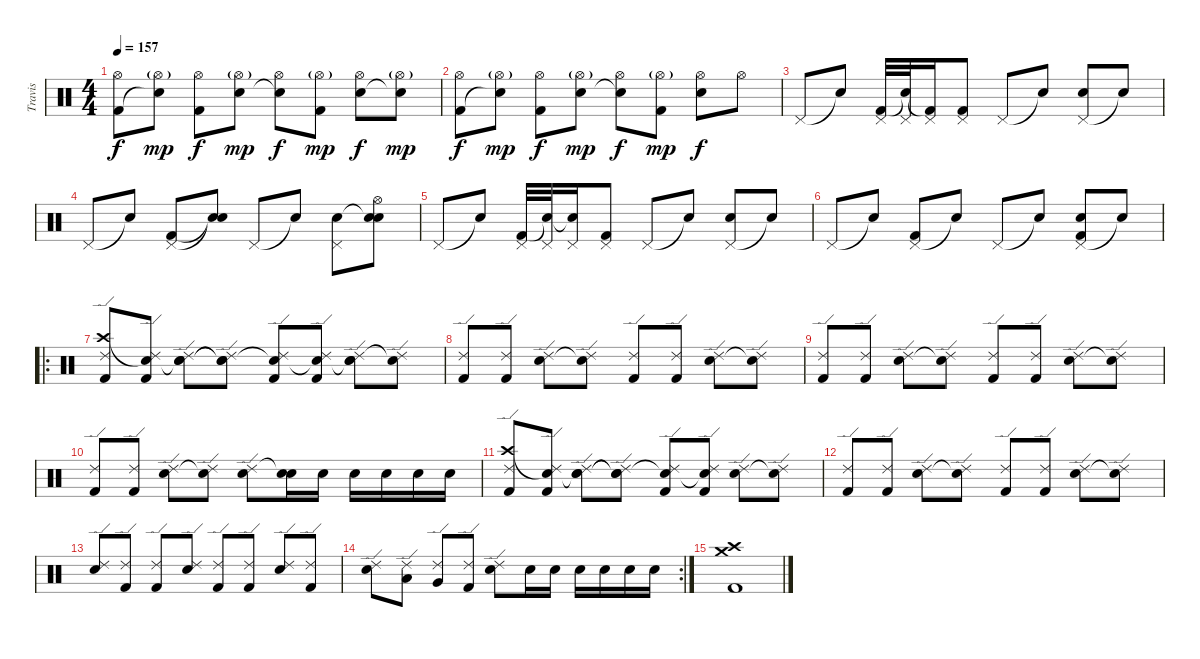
\track ("Travis" "Travis") {instrument percussion}
\staff {score}
\articulation defaults
\ts (4 4)
\tempo 157
\clef neutral
\ks c
("Hi-Hat (open)" "Kick (hit) 2").8{dy f} ("Hi-Hat (open)"{g} "Snare (hit)"{t}).8{dy mp} ("Hi-Hat (open)" "Kick (hit) 2").8{dy f} ("Hi-Hat (open)"{g} "Electric Snare (hit)").8{dy mp} ("Hi-Hat (open)" "Snare (hit)"{t}).8{dy f} ("Hi-Hat (open)"{g} "Kick (hit) 2").8{dy mp} ("Hi-Hat (open)" "Electric Snare (hit)").8{dy f} ("Hi-Hat (open)"{g} "Snare (hit)"{t}).8{dy mp} |
("Hi-Hat (open)" "Kick (hit) 2").8{dy f} ("Hi-Hat (open)"{g} "Snare (hit)"{t}).8{dy mp} ("Hi-Hat (open)" "Kick (hit) 2").8{dy f} ("Hi-Hat (open)"{g} "Electric Snare (hit)").8{dy mp} ("Hi-Hat (open)" "Snare (hit)"{t}).8{dy f} ("Hi-Hat (open)"{g} "Kick (hit) 2").8{dy mp} ("Hi-Hat (open)" "Electric Snare (hit)").8{dy f} "Hi-Hat (open)".8 |
"Pedal Hi-Hat (hit)".8 "Snare (hit)"{t}.8 ("Pedal Hi-Hat (hit)" "Kick (hit) 2").32 ("Pedal Hi-Hat (hit)" "Snare (hit)"{t}).32 ("Pedal Hi-Hat (hit)" "Kick (hit) 2"{t}).16 ("Pedal Hi-Hat (hit)" "Kick (hit) 2").8 "Pedal Hi-Hat (hit)".8 "Snare (hit)"{t}.8 ("Pedal Hi-Hat (hit)" "Snare (hit) 2").8 "Snare (hit)"{t}.8 |
"Pedal Hi-Hat (hit)".8 "Snare (hit)"{t}.8 ("Pedal Hi-Hat (hit)" "Kick (hit) 2").8 ("Snare (hit)"{t} "Snare (hit)"{t}).8 "Pedal Hi-Hat (hit)".8 "Snare (hit)"{t}.8 ("Pedal Hi-Hat (hit)" "Snare (hit) 2").8 ("Hi-Hat (open)" "Snare (hit)"{t} "Snare (hit)").8 |
"Pedal Hi-Hat (hit)".8 "Snare (hit)"{t}.8 ("Pedal Hi-Hat (hit)" "Kick (hit) 2").32 ("Pedal Hi-Hat (hit)" "Snare (hit)"{t}).32 ("Pedal Hi-Hat (hit)" "Snare (hit)"{t}).16 ("Pedal Hi-Hat (hit)" "Kick (hit) 2").8 "Pedal Hi-Hat (hit)".8 "Snare (hit)"{t}.8 ("Pedal Hi-Hat (hit)" "Snare (hit) 2").8 "Snare (hit)"{t}.8 |
"Pedal Hi-Hat (hit)".8 "Snare (hit)"{t}.8 ("Pedal Hi-Hat (hit)" "Kick (hit) 2").8 "Snare (hit)"{t}.8 "Pedal Hi-Hat (hit)".8 "Snare (hit)"{t}.8 ("Pedal Hi-Hat (hit)" "Snare (hit) 2" "Kick (hit) 2").8 "Snare (hit)"{t}.8 |
\ro
("Crash high (hit)" "Ride (edge) 2" "Kick (hit) 2").8 ("Snare (hit)"{t} "Ride (edge) 2" "Kick (hit) 2").8 ("Snare (hit)"{t} "Ride (edge) 2" "Electric Snare (hit)").8 ("Snare (hit)"{t} "Ride (edge) 2" "Snare (hit)"{t}).8 ("Snare (hit)"{t} "Ride (edge) 2" "Kick (hit) 2").8 ("Snare (hit)"{t} "Ride (edge) 2" "Kick (hit) 2").8 ("Snare (hit)"{t} "Ride (edge) 2" "Electric Snare (hit)").8 ("Ride (edge) 2" "Snare (hit)"{t}).8 |
("Ride (edge) 2" "Kick (hit) 2").8 ("Ride (edge) 2" "Kick (hit) 2").8 ("Ride (edge) 2" "Electric Snare (hit)").8 ("Ride (edge) 2" "Snare (hit)"{t}).8 ("Ride (edge) 2" "Kick (hit) 2").8 ("Ride (edge) 2" "Kick (hit) 2").8 ("Ride (edge) 2" "Electric Snare (hit)").8 ("Ride (edge) 2" "Snare (hit)"{t}).8 |
("Ride (edge) 2" "Kick (hit) 2").8 ("Ride (edge) 2" "Kick (hit) 2").8 ("Ride (edge) 2" "Electric Snare (hit)").8 ("Ride (edge) 2" "Snare (hit)"{t}).8 ("Ride (edge) 2" "Kick (hit) 2").8 ("Ride (edge) 2" "Kick (hit) 2").8 ("Ride (edge) 2" "Electric Snare (hit)").8 ("Ride (edge) 2" "Snare (hit)"{t}).8 |
("Ride (edge) 2" "Kick (hit) 2").8 ("Ride (edge) 2" "Kick (hit) 2").8 ("Ride (edge) 2" "Electric Snare (hit)").8 ("Ride (edge) 2" "Snare (hit)"{t}).8 ("Ride (edge) 2" "Electric Snare (hit)").8 ("Snare (hit)"{t} "Electric Snare (hit)").16 "Electric Snare (hit)".16 "Electric Snare (hit)".16 "Electric Snare (hit)".16 "Electric Snare (hit)".16 "Electric Snare (hit)".16 |
("Crash high (hit)" "Ride (edge) 2" "Kick (hit) 2").8 ("Snare (hit)"{t} "Ride (edge) 2" "Kick (hit) 2").8 ("Snare (hit)"{t} "Ride (edge) 2" "Electric Snare (hit)").8 ("Snare (hit)"{t} "Ride (edge) 2" "Snare (hit)"{t}).8 ("Snare (hit)"{t} "Ride (edge) 2" "Kick (hit) 2").8 ("Snare (hit)"{t} "Ride (edge) 2" "Kick (hit) 2").8 ("Ride (edge) 2" "Electric Snare (hit)").8 ("Ride (edge) 2" "Snare (hit)"{t}).8 |
("Ride (edge) 2" "Kick (hit) 2").8 ("Ride (edge) 2" "Kick (hit) 2").8 ("Ride (edge) 2" "Electric Snare (hit)").8 ("Ride (edge) 2" "Snare (hit)"{t}).8 ("Ride (edge) 2" "Kick (hit) 2").8 ("Ride (edge) 2" "Kick (hit) 2").8 ("Ride (edge) 2" "Electric Snare (hit)").8 ("Ride (edge) 2" "Snare (hit)"{t}).8 |
("Ride (edge) 2" "Electric Snare (hit)").8 ("Ride (edge) 2" "Kick (hit) 2").8 ("Ride (edge) 2" "Kick (hit) 2").8 ("Ride (edge) 2" "Electric Snare (hit)").8 ("Ride (edge) 2" "Kick (hit) 2").8 ("Ride (edge) 2" "Kick (hit) 2").8 ("Ride (edge) 2" "Electric Snare (hit)").8 ("Ride (edge) 2" "Kick (hit) 2").8 |
\rc 2
("Ride (edge) 2" "Electric Snare (hit)").8 ("Ride (edge) 2" "Low Tom (hit)").8 ("Ride (edge) 2" "Very Low Tom (hit)").8 ("Ride (edge) 2" "Kick (hit) 2").8 ("Ride (edge) 2" "Electric Snare (hit)").8 "Electric Snare (hit)".16 "Electric Snare (hit)".16 "Electric Snare (hit)".16 "Electric Snare (hit)".16 "Electric Snare (hit)".16 "Electric Snare (hit)".16 |
("Crash high (hit)" "Crash medium (hit)" "Kick (hit) 2").1
